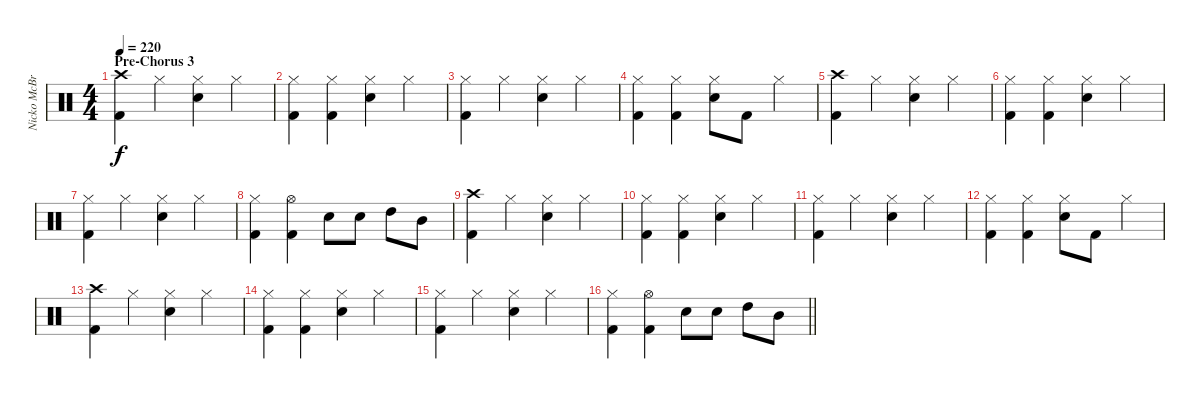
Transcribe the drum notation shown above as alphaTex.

\track ("Nicko McBrain" "Nicko McBr") {instrument percussion}
\staff {score}
\articulation defaults
\ts (4 4)
\section ("" "Pre-Chorus 3")
\tempo 220
\clef neutral
\ks c
("Crash high (hit)" "Kick (hit) 2").4{dy f} "Hi-Hat (closed)".4 ("Hi-Hat (closed)" "Electric Snare (hit)").4 "Hi-Hat (closed)".4 |
("Hi-Hat (closed)" "Kick (hit) 2").4 ("Hi-Hat (closed)" "Kick (hit) 2").4 ("Hi-Hat (closed)" "Electric Snare (hit)").4 "Hi-Hat (closed)".4 |
("Hi-Hat (closed)" "Kick (hit) 2").4 "Hi-Hat (closed)".4 ("Hi-Hat (closed)" "Electric Snare (hit)").4 "Hi-Hat (closed)".4 |
("Hi-Hat (closed)" "Kick (hit) 2").4 ("Hi-Hat (closed)" "Kick (hit) 2").4 ("Hi-Hat (closed)" "Electric Snare (hit)").8 "Kick (hit) 2".8 "Hi-Hat (closed)".4 |
("Crash high (hit)" "Kick (hit) 2").4 "Hi-Hat (closed)".4 ("Hi-Hat (closed)" "Electric Snare (hit)").4 "Hi-Hat (closed)".4 |
("Hi-Hat (closed)" "Kick (hit) 2").4 ("Hi-Hat (closed)" "Kick (hit) 2").4 ("Hi-Hat (closed)" "Electric Snare (hit)").4 "Hi-Hat (closed)".4 |
("Hi-Hat (closed)" "Kick (hit) 2").4 "Hi-Hat (closed)".4 ("Hi-Hat (closed)" "Electric Snare (hit)").4 "Hi-Hat (closed)".4 |
("Hi-Hat (closed)" "Kick (hit) 2").4 ("Hi-Hat (open)" "Kick (hit) 2").4 "Electric Snare (hit)".8 "Electric Snare (hit)".8 "High Tom (hit)".8 "Mid Tom (hit)".8 |
("Crash high (hit)" "Kick (hit) 2").4 "Hi-Hat (closed)".4 ("Hi-Hat (closed)" "Electric Snare (hit)").4 "Hi-Hat (closed)".4 |
("Hi-Hat (closed)" "Kick (hit) 2").4 ("Hi-Hat (closed)" "Kick (hit) 2").4 ("Hi-Hat (closed)" "Electric Snare (hit)").4 "Hi-Hat (closed)".4 |
("Hi-Hat (closed)" "Kick (hit) 2").4 "Hi-Hat (closed)".4 ("Hi-Hat (closed)" "Electric Snare (hit)").4 "Hi-Hat (closed)".4 |
("Hi-Hat (closed)" "Kick (hit) 2").4 ("Hi-Hat (closed)" "Kick (hit) 2").4 ("Hi-Hat (closed)" "Electric Snare (hit)").8 "Kick (hit) 2".8 "Hi-Hat (closed)".4 |
("Crash high (hit)" "Kick (hit) 2").4 "Hi-Hat (closed)".4 ("Hi-Hat (closed)" "Electric Snare (hit)").4 "Hi-Hat (closed)".4 |
("Hi-Hat (closed)" "Kick (hit) 2").4 ("Hi-Hat (closed)" "Kick (hit) 2").4 ("Hi-Hat (closed)" "Electric Snare (hit)").4 "Hi-Hat (closed)".4 |
("Hi-Hat (closed)" "Kick (hit) 2").4 "Hi-Hat (closed)".4 ("Hi-Hat (closed)" "Electric Snare (hit)").4 "Hi-Hat (closed)".4 |
\barLineRight lightlight
("Hi-Hat (closed)" "Kick (hit) 2").4 ("Hi-Hat (open)" "Kick (hit) 2").4 "Electric Snare (hit)".8 "Electric Snare (hit)".8 "High Tom (hit)".8 "Mid Tom (hit)".8
